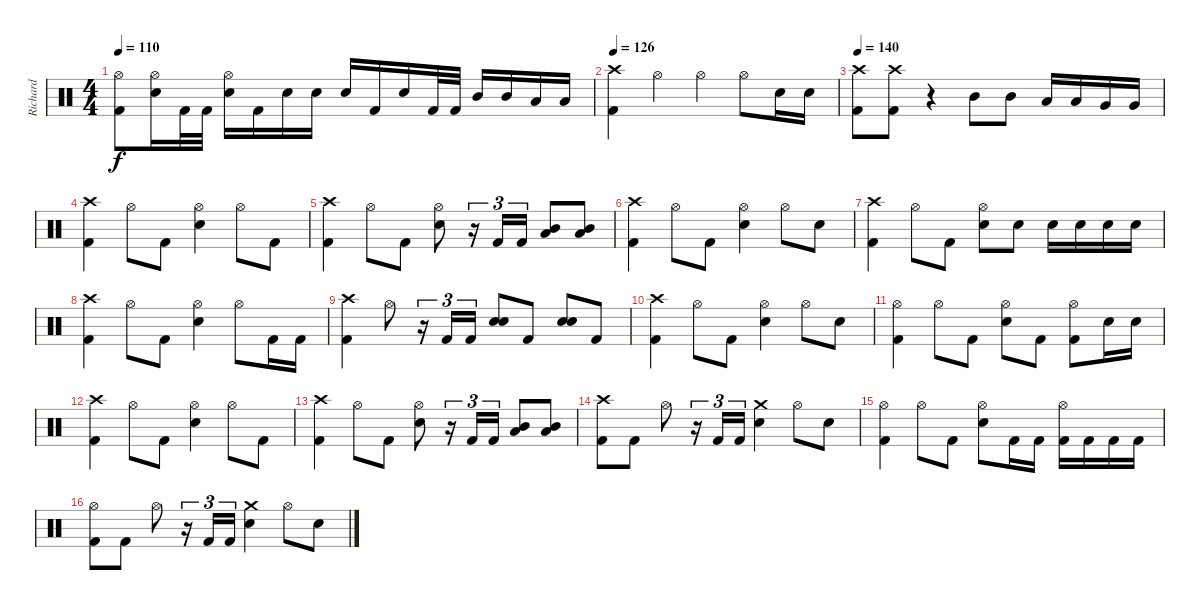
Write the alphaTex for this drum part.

\track ("Richard" "Richard") {instrument percussion}
\staff {score}
\articulation defaults
\ts (4 4)
\tempo 110
\clef neutral
\ks c
("Hi-Hat (open)" "Kick (hit) 2").8{dy f} ("Hi-Hat (open)" "Snare (hit) 2").16 "Kick (hit) 2".32 "Kick (hit) 2".32 ("Hi-Hat (open)" "Snare (hit) 2").16 "Kick (hit) 2".16 "Snare (hit) 2".16 "Snare (hit) 2".16 "Snare (hit) 2".16 "Kick (hit) 2".16 "Snare (hit) 2".16 "Kick (hit) 2".32 "Kick (hit) 2".32 "Mid Tom (hit)".16 "Mid Tom (hit)".16 "Low Tom (hit)".16 "Low Tom (hit)".16 |
\tempo 126
("Crash high (hit)" "Kick (hit) 2").4 "Hi-Hat (open)".4 "Hi-Hat (open)".4 "Hi-Hat (open)".8 "Snare (hit) 2".16 "Snare (hit) 2".16 |
\tempo 140
("Crash high (hit)" "Kick (hit) 2").8 ("Crash high (hit)" "Kick (hit) 2").8 r.4 "Mid Tom (hit)".8 "Mid Tom (hit)".8 "Low Tom (hit)".16 "Low Tom (hit)".16 "Very Low Tom (hit)".16 "Very Low Tom (hit)".16 |
("Crash high (hit)" "Kick (hit) 2").4 "Hi-Hat (open)".8 "Kick (hit) 2".8 ("Hi-Hat (open)" "Snare (hit) 2").4 "Hi-Hat (open)".8 "Kick (hit) 2".8 |
("Crash high (hit)" "Kick (hit) 2").4 "Hi-Hat (open)".8 "Kick (hit) 2".8 ("Hi-Hat (open)" "Snare (hit) 2").8 r.16{tu (3 2)} "Kick (hit) 2".16{tu (3 2)} "Kick (hit) 2".16{tu (3 2)} ("Mid Tom (hit)" "Low Tom (hit)").8 ("Mid Tom (hit)" "Low Tom (hit)").8 |
("Crash high (hit)" "Kick (hit) 2").4 "Hi-Hat (open)".8 "Kick (hit) 2".8 ("Hi-Hat (open)" "Snare (hit) 2").4 "Hi-Hat (open)".8 "Snare (hit) 2".8 |
("Crash high (hit)" "Kick (hit) 2").4 "Hi-Hat (open)".8 "Kick (hit) 2".8 ("Hi-Hat (open)" "Snare (hit) 2").8 "Snare (hit) 2".8 "Snare (hit) 2".16 "Snare (hit) 2".16 "Snare (hit) 2".16 "Snare (hit) 2".16 |
("Crash high (hit)" "Kick (hit) 2").4 "Hi-Hat (open)".8 "Kick (hit) 2".8 ("Hi-Hat (open)" "Snare (hit) 2").4 "Hi-Hat (open)".8 "Kick (hit) 2".16 "Kick (hit) 2".16 |
("Crash high (hit)" "Kick (hit) 2").4 "Hi-Hat (open)".8 r.16{tu (3 2)} "Kick (hit) 2".16{tu (3 2)} "Kick (hit) 2".16{tu (3 2)} ("Snare (hit) 2" "Snare (hit) 2").8 "Kick (hit) 2".8 ("Snare (hit) 2" "Snare (hit) 2").8 "Kick (hit) 2".8 |
("Crash high (hit)" "Kick (hit) 2").4 "Hi-Hat (open)".8 "Kick (hit) 2".8 ("Hi-Hat (open)" "Snare (hit) 2").4 "Hi-Hat (open)".8 "Snare (hit) 2".8 |
("Hi-Hat (open)" "Kick (hit) 2").4 "Hi-Hat (open)".8 "Kick (hit) 2".8 ("Hi-Hat (open)" "Snare (hit) 2").8 "Kick (hit) 2".8 ("Hi-Hat (open)" "Kick (hit) 2").8 "Snare (hit) 2".16 "Snare (hit) 2".16 |
("Crash high (hit)" "Kick (hit) 2").4 "Hi-Hat (open)".8 "Kick (hit) 2".8 ("Hi-Hat (open)" "Snare (hit) 2").4 "Hi-Hat (open)".8 "Kick (hit) 2".8 |
("Crash high (hit)" "Kick (hit) 2").4 "Hi-Hat (open)".8 "Kick (hit) 2".8 ("Hi-Hat (open)" "Snare (hit) 2").8 r.16{tu (3 2)} "Kick (hit) 2".16{tu (3 2)} "Kick (hit) 2".16{tu (3 2)} ("Mid Tom (hit)" "Low Tom (hit)").8 ("Mid Tom (hit)" "Low Tom (hit)").8 |
("Crash high (hit)" "Kick (hit) 2").8 "Kick (hit) 2".8 "Hi-Hat (open)".8 r.16{tu (3 2)} "Kick (hit) 2".16{tu (3 2)} "Kick (hit) 2".16{tu (3 2)} ("Crash medium (hit)" "Snare (hit) 2").4 "Hi-Hat (open)".8 "Snare (hit) 2".8 |
("Hi-Hat (open)" "Kick (hit) 2").4 "Hi-Hat (open)".8 "Kick (hit) 2".8 ("Hi-Hat (open)" "Snare (hit) 2").8 "Kick (hit) 2".16 "Kick (hit) 2".16 ("Hi-Hat (open)" "Kick (hit) 2").16 "Kick (hit) 2".16 "Kick (hit) 2".16 "Kick (hit) 2".16 |
("Hi-Hat (open)" "Kick (hit) 2").8 "Kick (hit) 2".8 "Hi-Hat (open)".8 r.16{tu (3 2)} "Kick (hit) 2".16{tu (3 2)} "Kick (hit) 2".16{tu (3 2)} ("Crash medium (hit)" "Snare (hit) 2").4 "Hi-Hat (open)".8 "Snare (hit) 2".8
